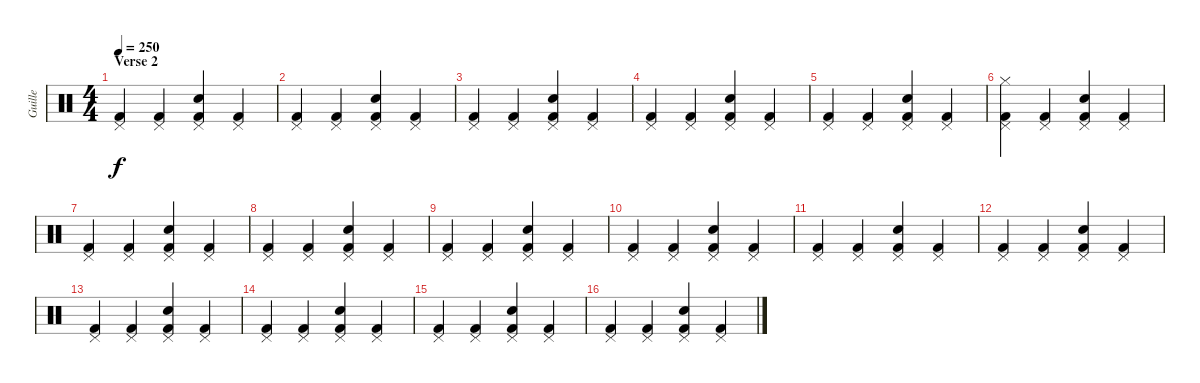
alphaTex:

\track ("Guille" "Guille") {instrument percussion}
\staff
\articulation defaults
\ts (4 4)
\section ("" "Verse 2")
\tempo 250
\clef neutral
\ks c
("Kick (hit) 2" "Pedal Hi-Hat (hit)").4{dy f} ("Kick (hit) 2" "Pedal Hi-Hat (hit)").4 ("Kick (hit) 2" "Electric Snare (hit)" "Pedal Hi-Hat (hit)").4 ("Kick (hit) 2" "Pedal Hi-Hat (hit)").4 |
("Kick (hit) 2" "Pedal Hi-Hat (hit)").4 ("Kick (hit) 2" "Pedal Hi-Hat (hit)").4 ("Kick (hit) 2" "Electric Snare (hit)" "Pedal Hi-Hat (hit)").4 ("Kick (hit) 2" "Pedal Hi-Hat (hit)").4 |
("Kick (hit) 2" "Pedal Hi-Hat (hit)").4 ("Kick (hit) 2" "Pedal Hi-Hat (hit)").4 ("Kick (hit) 2" "Electric Snare (hit)" "Pedal Hi-Hat (hit)").4 ("Kick (hit) 2" "Pedal Hi-Hat (hit)").4 |
("Kick (hit) 2" "Pedal Hi-Hat (hit)").4 ("Kick (hit) 2" "Pedal Hi-Hat (hit)").4 ("Kick (hit) 2" "Electric Snare (hit)" "Pedal Hi-Hat (hit)").4 ("Kick (hit) 2" "Pedal Hi-Hat (hit)").4 |
("Kick (hit) 2" "Pedal Hi-Hat (hit)").4 ("Kick (hit) 2" "Pedal Hi-Hat (hit)").4 ("Kick (hit) 2" "Electric Snare (hit)" "Pedal Hi-Hat (hit)").4 ("Kick (hit) 2" "Pedal Hi-Hat (hit)").4 |
("Kick (hit) 2" "Hi-Hat (closed)" "Pedal Hi-Hat (hit)").4 ("Kick (hit) 2" "Pedal Hi-Hat (hit)").4 ("Kick (hit) 2" "Electric Snare (hit)" "Pedal Hi-Hat (hit)").4 ("Kick (hit) 2" "Pedal Hi-Hat (hit)").4 |
("Kick (hit) 2" "Pedal Hi-Hat (hit)").4 ("Kick (hit) 2" "Pedal Hi-Hat (hit)").4 ("Kick (hit) 2" "Electric Snare (hit)" "Pedal Hi-Hat (hit)").4 ("Kick (hit) 2" "Pedal Hi-Hat (hit)").4 |
("Kick (hit) 2" "Pedal Hi-Hat (hit)").4 ("Kick (hit) 2" "Pedal Hi-Hat (hit)").4 ("Kick (hit) 2" "Electric Snare (hit)" "Pedal Hi-Hat (hit)").4 ("Kick (hit) 2" "Pedal Hi-Hat (hit)").4 |
("Kick (hit) 2" "Pedal Hi-Hat (hit)").4 ("Kick (hit) 2" "Pedal Hi-Hat (hit)").4 ("Kick (hit) 2" "Electric Snare (hit)" "Pedal Hi-Hat (hit)").4 ("Kick (hit) 2" "Pedal Hi-Hat (hit)").4 |
("Kick (hit) 2" "Pedal Hi-Hat (hit)").4 ("Kick (hit) 2" "Pedal Hi-Hat (hit)").4 ("Kick (hit) 2" "Electric Snare (hit)" "Pedal Hi-Hat (hit)").4 ("Kick (hit) 2" "Pedal Hi-Hat (hit)").4 |
("Kick (hit) 2" "Pedal Hi-Hat (hit)").4 ("Kick (hit) 2" "Pedal Hi-Hat (hit)").4 ("Kick (hit) 2" "Electric Snare (hit)" "Pedal Hi-Hat (hit)").4 ("Kick (hit) 2" "Pedal Hi-Hat (hit)").4 |
("Kick (hit) 2" "Pedal Hi-Hat (hit)").4 ("Kick (hit) 2" "Pedal Hi-Hat (hit)").4 ("Kick (hit) 2" "Electric Snare (hit)" "Pedal Hi-Hat (hit)").4 ("Kick (hit) 2" "Pedal Hi-Hat (hit)").4 |
("Kick (hit) 2" "Pedal Hi-Hat (hit)").4 ("Kick (hit) 2" "Pedal Hi-Hat (hit)").4 ("Kick (hit) 2" "Electric Snare (hit)" "Pedal Hi-Hat (hit)").4 ("Kick (hit) 2" "Pedal Hi-Hat (hit)").4 |
("Kick (hit) 2" "Pedal Hi-Hat (hit)").4 ("Kick (hit) 2" "Pedal Hi-Hat (hit)").4 ("Kick (hit) 2" "Electric Snare (hit)" "Pedal Hi-Hat (hit)").4 ("Kick (hit) 2" "Pedal Hi-Hat (hit)").4 |
("Kick (hit) 2" "Pedal Hi-Hat (hit)").4 ("Kick (hit) 2" "Pedal Hi-Hat (hit)").4 ("Kick (hit) 2" "Electric Snare (hit)" "Pedal Hi-Hat (hit)").4 ("Kick (hit) 2" "Pedal Hi-Hat (hit)").4 |
("Kick (hit) 2" "Pedal Hi-Hat (hit)").4 ("Kick (hit) 2" "Pedal Hi-Hat (hit)").4 ("Kick (hit) 2" "Electric Snare (hit)" "Pedal Hi-Hat (hit)").4 ("Kick (hit) 2" "Pedal Hi-Hat (hit)").4
